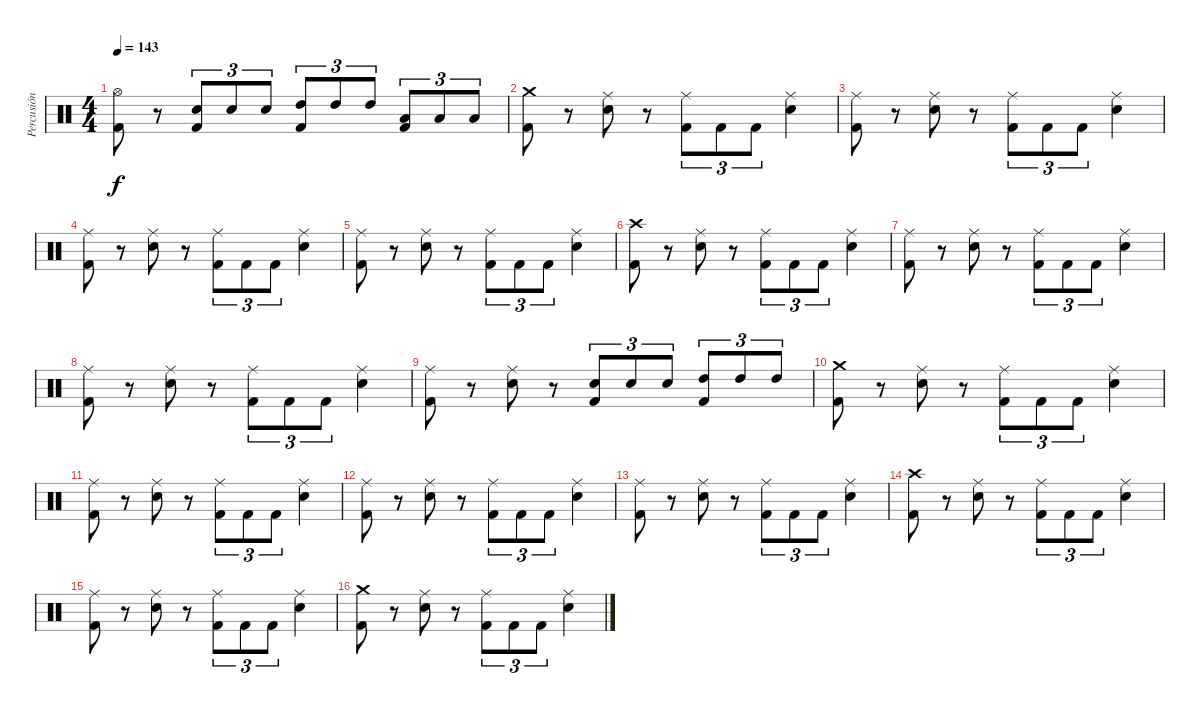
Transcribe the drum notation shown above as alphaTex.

\track ("Percusión" "Percusión") {instrument percussion}
\staff {score}
\articulation defaults
\ts (4 4)
\tempo 143
\clef neutral
\ks c
("Hi-Hat (open)" "Kick (hit) 2").8{dy f} r.8 ("Electric Snare (hit)" "Kick (hit) 2").8{tu (3 2)} "Electric Snare (hit)".8{tu (3 2)} "Electric Snare (hit)".8{tu (3 2)} ("High Tom (hit)" "Kick (hit) 2").8{tu (3 2)} "High Tom (hit)".8{tu (3 2)} "High Tom (hit)".8{tu (3 2)} ("Low Tom (hit)" "Kick (hit) 2").8{tu (3 2)} "Low Tom (hit)".8{tu (3 2)} "Low Tom (hit)".8{tu (3 2)} |
("Crash medium (hit)" "Kick (hit) 2").8 r.8 ("Ride (middle)" "Electric Snare (hit)").8 r.8 ("Ride (middle)" "Kick (hit) 2").8{tu (3 2)} "Kick (hit) 2".8{tu (3 2)} "Kick (hit) 2".8{tu (3 2)} ("Ride (middle)" "Electric Snare (hit)").4 |
("Ride (middle)" "Kick (hit) 2").8 r.8 ("Ride (middle)" "Electric Snare (hit)").8 r.8 ("Ride (middle)" "Kick (hit) 2").8{tu (3 2)} "Kick (hit) 2".8{tu (3 2)} "Kick (hit) 2".8{tu (3 2)} ("Ride (middle)" "Electric Snare (hit)").4 |
("Ride (middle)" "Kick (hit) 2").8 r.8 ("Ride (middle)" "Electric Snare (hit)").8 r.8 ("Ride (middle)" "Kick (hit) 2").8{tu (3 2)} "Kick (hit) 2".8{tu (3 2)} "Kick (hit) 2".8{tu (3 2)} ("Ride (middle)" "Electric Snare (hit)").4 |
("Ride (middle)" "Kick (hit) 2").8 r.8 ("Ride (middle)" "Electric Snare (hit)").8 r.8 ("Ride (middle)" "Kick (hit) 2").8{tu (3 2)} "Kick (hit) 2".8{tu (3 2)} "Kick (hit) 2".8{tu (3 2)} ("Ride (middle)" "Electric Snare (hit)").4 |
("Crash high (hit)" "Kick (hit) 2").8 r.8 ("Ride (middle)" "Electric Snare (hit)").8 r.8 ("Ride (middle)" "Kick (hit) 2").8{tu (3 2)} "Kick (hit) 2".8{tu (3 2)} "Kick (hit) 2".8{tu (3 2)} ("Ride (middle)" "Electric Snare (hit)").4 |
("Ride (middle)" "Kick (hit) 2").8 r.8 ("Ride (middle)" "Electric Snare (hit)").8 r.8 ("Ride (middle)" "Kick (hit) 2").8{tu (3 2)} "Kick (hit) 2".8{tu (3 2)} "Kick (hit) 2".8{tu (3 2)} ("Ride (middle)" "Electric Snare (hit)").4 |
("Ride (middle)" "Kick (hit) 2").8 r.8 ("Ride (middle)" "Electric Snare (hit)").8 r.8 ("Ride (middle)" "Kick (hit) 2").8{tu (3 2)} "Kick (hit) 2".8{tu (3 2)} "Kick (hit) 2".8{tu (3 2)} ("Ride (middle)" "Electric Snare (hit)").4 |
("Ride (middle)" "Kick (hit) 2").8 r.8 ("Ride (middle)" "Electric Snare (hit)").8 r.8 ("Electric Snare (hit)" "Kick (hit) 2").8{tu (3 2)} "Electric Snare (hit)".8{tu (3 2)} "Electric Snare (hit)".8{tu (3 2)} ("High Tom (hit)" "Kick (hit) 2").8{tu (3 2)} "High Tom (hit)".8{tu (3 2)} "High Tom (hit)".8{tu (3 2)} |
("Crash medium (hit)" "Kick (hit) 2").8 r.8 ("Ride (middle)" "Electric Snare (hit)").8 r.8 ("Ride (middle)" "Kick (hit) 2").8{tu (3 2)} "Kick (hit) 2".8{tu (3 2)} "Kick (hit) 2".8{tu (3 2)} ("Ride (middle)" "Electric Snare (hit)").4 |
("Ride (middle)" "Kick (hit) 2").8 r.8 ("Ride (middle)" "Electric Snare (hit)").8 r.8 ("Ride (middle)" "Kick (hit) 2").8{tu (3 2)} "Kick (hit) 2".8{tu (3 2)} "Kick (hit) 2".8{tu (3 2)} ("Ride (middle)" "Electric Snare (hit)").4 |
("Ride (middle)" "Kick (hit) 2").8 r.8 ("Ride (middle)" "Electric Snare (hit)").8 r.8 ("Ride (middle)" "Kick (hit) 2").8{tu (3 2)} "Kick (hit) 2".8{tu (3 2)} "Kick (hit) 2".8{tu (3 2)} ("Ride (middle)" "Electric Snare (hit)").4 |
("Ride (middle)" "Kick (hit) 2").8 r.8 ("Ride (middle)" "Electric Snare (hit)").8 r.8 ("Ride (middle)" "Kick (hit) 2").8{tu (3 2)} "Kick (hit) 2".8{tu (3 2)} "Kick (hit) 2".8{tu (3 2)} ("Ride (middle)" "Electric Snare (hit)").4 |
("Crash high (hit)" "Kick (hit) 2").8 r.8 ("Ride (middle)" "Electric Snare (hit)").8 r.8 ("Ride (middle)" "Kick (hit) 2").8{tu (3 2)} "Kick (hit) 2".8{tu (3 2)} "Kick (hit) 2".8{tu (3 2)} ("Ride (middle)" "Electric Snare (hit)").4 |
("Ride (middle)" "Kick (hit) 2").8 r.8 ("Ride (middle)" "Electric Snare (hit)").8 r.8 ("Ride (middle)" "Kick (hit) 2").8{tu (3 2)} "Kick (hit) 2".8{tu (3 2)} "Kick (hit) 2".8{tu (3 2)} ("Ride (middle)" "Electric Snare (hit)").4 |
("Crash medium (hit)" "Kick (hit) 2").8 r.8 ("Ride (middle)" "Electric Snare (hit)").8 r.8 ("Ride (middle)" "Kick (hit) 2").8{tu (3 2)} "Kick (hit) 2".8{tu (3 2)} "Kick (hit) 2".8{tu (3 2)} ("Ride (middle)" "Electric Snare (hit)").4
